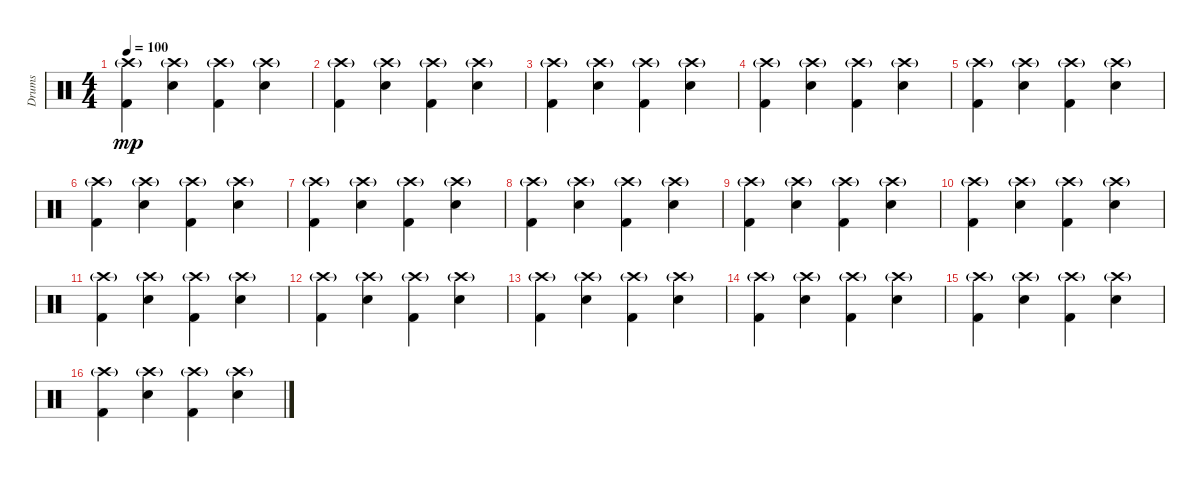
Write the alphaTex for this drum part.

\track ("Drums" "Drums") {instrument percussion}
\staff {score}
\articulation defaults
\ts (4 4)
\tempo 100
\clef neutral
\ks c
("Crash high (hit)"{g} "Kick (hit) 2").4{dy mp} ("Crash high (hit)"{g} "Electric Snare (hit)").4 ("Crash high (hit)"{g} "Kick (hit) 2").4 ("Crash high (hit)"{g} "Electric Snare (hit)").4 |
("Crash high (hit)"{g} "Kick (hit) 2").4 ("Crash high (hit)"{g} "Electric Snare (hit)").4 ("Crash high (hit)"{g} "Kick (hit) 2").4 ("Crash high (hit)"{g} "Electric Snare (hit)").4 |
("Crash high (hit)"{g} "Kick (hit) 2").4 ("Crash high (hit)"{g} "Electric Snare (hit)").4 ("Crash high (hit)"{g} "Kick (hit) 2").4 ("Crash high (hit)"{g} "Electric Snare (hit)").4 |
("Crash high (hit)"{g} "Kick (hit) 2").4 ("Crash high (hit)"{g} "Electric Snare (hit)").4 ("Crash high (hit)"{g} "Kick (hit) 2").4 ("Crash high (hit)"{g} "Electric Snare (hit)").4 |
("Crash high (hit)"{g} "Kick (hit) 2").4 ("Crash high (hit)"{g} "Electric Snare (hit)").4 ("Crash high (hit)"{g} "Kick (hit) 2").4 ("Crash high (hit)"{g} "Electric Snare (hit)").4 |
("Crash high (hit)"{g} "Kick (hit) 2").4 ("Crash high (hit)"{g} "Electric Snare (hit)").4 ("Crash high (hit)"{g} "Kick (hit) 2").4 ("Crash high (hit)"{g} "Electric Snare (hit)").4 |
("Crash high (hit)"{g} "Kick (hit) 2").4 ("Crash high (hit)"{g} "Electric Snare (hit)").4 ("Crash high (hit)"{g} "Kick (hit) 2").4 ("Crash high (hit)"{g} "Electric Snare (hit)").4 |
("Crash high (hit)"{g} "Kick (hit) 2").4 ("Crash high (hit)"{g} "Electric Snare (hit)").4 ("Crash high (hit)"{g} "Kick (hit) 2").4 ("Crash high (hit)"{g} "Electric Snare (hit)").4 |
("Crash high (hit)"{g} "Kick (hit) 2").4 ("Crash high (hit)"{g} "Electric Snare (hit)").4 ("Crash high (hit)"{g} "Kick (hit) 2").4 ("Crash high (hit)"{g} "Electric Snare (hit)").4 |
("Crash high (hit)"{g} "Kick (hit) 2").4 ("Crash high (hit)"{g} "Electric Snare (hit)").4 ("Crash high (hit)"{g} "Kick (hit) 2").4 ("Crash high (hit)"{g} "Electric Snare (hit)").4 |
("Crash high (hit)"{g} "Kick (hit) 2").4 ("Crash high (hit)"{g} "Electric Snare (hit)").4 ("Crash high (hit)"{g} "Kick (hit) 2").4 ("Crash high (hit)"{g} "Electric Snare (hit)").4 |
("Crash high (hit)"{g} "Kick (hit) 2").4 ("Crash high (hit)"{g} "Electric Snare (hit)").4 ("Crash high (hit)"{g} "Kick (hit) 2").4 ("Crash high (hit)"{g} "Electric Snare (hit)").4 |
("Crash high (hit)"{g} "Kick (hit) 2").4 ("Crash high (hit)"{g} "Electric Snare (hit)").4 ("Crash high (hit)"{g} "Kick (hit) 2").4 ("Crash high (hit)"{g} "Electric Snare (hit)").4 |
("Crash high (hit)"{g} "Kick (hit) 2").4 ("Crash high (hit)"{g} "Electric Snare (hit)").4 ("Crash high (hit)"{g} "Kick (hit) 2").4 ("Crash high (hit)"{g} "Electric Snare (hit)").4 |
("Crash high (hit)"{g} "Kick (hit) 2").4 ("Crash high (hit)"{g} "Electric Snare (hit)").4 ("Crash high (hit)"{g} "Kick (hit) 2").4 ("Crash high (hit)"{g} "Electric Snare (hit)").4 |
("Crash high (hit)"{g} "Kick (hit) 2").4 ("Crash high (hit)"{g} "Electric Snare (hit)").4 ("Crash high (hit)"{g} "Kick (hit) 2").4 ("Crash high (hit)"{g} "Electric Snare (hit)").4
